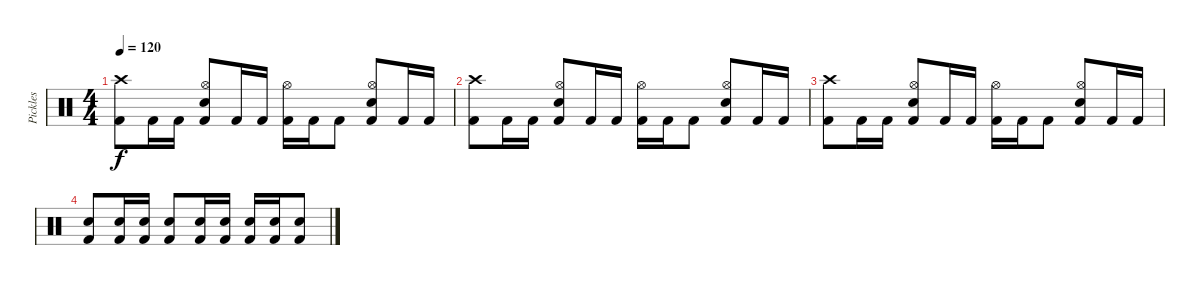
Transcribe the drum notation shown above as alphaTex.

\track ("Pickles" "Pickles") {instrument percussion}
\staff {score}
\articulation defaults
\ts (4 4)
\tempo 120
\clef neutral
\ks c
("Crash high (hit)" "Kick (hit) 2").8{dy f} "Kick (hit) 2".16 "Kick (hit) 2".16 ("Hi-Hat (open)" "Snare (hit) 2" "Kick (hit) 2").8 "Kick (hit) 2".16 "Kick (hit) 2".16 ("Hi-Hat (open)" "Kick (hit) 2").16 "Kick (hit) 2".16 "Kick (hit) 2".8 ("Hi-Hat (open)" "Snare (hit) 2" "Kick (hit) 2").8 "Kick (hit) 2".16 "Kick (hit) 2".16 |
("Crash high (hit)" "Kick (hit) 2").8 "Kick (hit) 2".16 "Kick (hit) 2".16 ("Hi-Hat (open)" "Snare (hit) 2" "Kick (hit) 2").8 "Kick (hit) 2".16 "Kick (hit) 2".16 ("Hi-Hat (open)" "Kick (hit) 2").16 "Kick (hit) 2".16 "Kick (hit) 2".8 ("Hi-Hat (open)" "Snare (hit) 2" "Kick (hit) 2").8 "Kick (hit) 2".16 "Kick (hit) 2".16 |
("Crash high (hit)" "Kick (hit) 2").8 "Kick (hit) 2".16 "Kick (hit) 2".16 ("Hi-Hat (open)" "Snare (hit) 2" "Kick (hit) 2").8 "Kick (hit) 2".16 "Kick (hit) 2".16 ("Hi-Hat (open)" "Kick (hit) 2").16 "Kick (hit) 2".16 "Kick (hit) 2".8 ("Hi-Hat (open)" "Snare (hit) 2" "Kick (hit) 2").8 "Kick (hit) 2".16 "Kick (hit) 2".16 |
("Snare (hit) 2" "Kick (hit) 2").8 ("Snare (hit) 2" "Kick (hit) 2").16 ("Snare (hit) 2" "Kick (hit) 2").16 ("Snare (hit) 2" "Kick (hit) 2").8 ("Snare (hit) 2" "Kick (hit) 2").16 ("Snare (hit) 2" "Kick (hit) 2").16 ("Snare (hit) 2" "Kick (hit) 2").16 ("Snare (hit) 2" "Kick (hit) 2").16 ("Snare (hit) 2" "Kick (hit) 2").8
